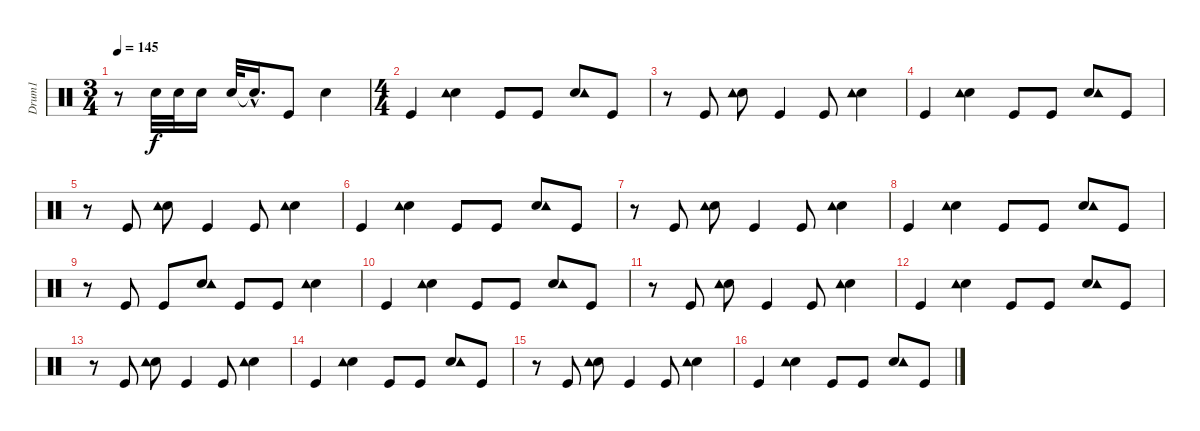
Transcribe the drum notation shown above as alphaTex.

\track ("Drum1" "Drum1") {instrument percussion}
\staff {score}
\articulation defaults
\ts (3 4)
\tempo 145
\clef neutral
\ks c
r.8{dy f} "Snare (hit) 2".32 "Snare (hit) 2".32 "Snare (hit) 2".16 "Snare (hit) 2".32 "Snare (hit) 2"{hac t}.16{d} "Kick (hit)".8 "Snare (hit) 2".4 |
\ts (4 4)
"Kick (hit)".4 ("Snare (hit) 2" "Tambourine (hit)").4 "Kick (hit)".8 "Kick (hit)".8 ("Snare (hit) 2" "Tambourine (hit)").8 "Kick (hit)".8 |
r.8 "Kick (hit)".8 ("Snare (hit) 2" "Tambourine (hit)").8 "Kick (hit)".4 "Kick (hit)".8 ("Snare (hit) 2" "Tambourine (hit)").4 |
"Kick (hit)".4 ("Snare (hit) 2" "Tambourine (hit)").4 "Kick (hit)".8 "Kick (hit)".8 ("Snare (hit) 2" "Tambourine (hit)").8 "Kick (hit)".8 |
r.8 "Kick (hit)".8 ("Snare (hit) 2" "Tambourine (hit)").8 "Kick (hit)".4 "Kick (hit)".8 ("Snare (hit) 2" "Tambourine (hit)").4 |
"Kick (hit)".4 ("Snare (hit) 2" "Tambourine (hit)").4 "Kick (hit)".8 "Kick (hit)".8 ("Snare (hit) 2" "Tambourine (hit)").8 "Kick (hit)".8 |
r.8 "Kick (hit)".8 ("Snare (hit) 2" "Tambourine (hit)").8 "Kick (hit)".4 "Kick (hit)".8 ("Snare (hit) 2" "Tambourine (hit)").4 |
"Kick (hit)".4 ("Snare (hit) 2" "Tambourine (hit)").4 "Kick (hit)".8 "Kick (hit)".8 ("Snare (hit) 2" "Tambourine (hit)").8 "Kick (hit)".8 |
r.8 "Kick (hit)".8 "Kick (hit)".8 ("Snare (hit) 2" "Tambourine (hit)").8 "Kick (hit)".8 "Kick (hit)".8 ("Snare (hit) 2" "Tambourine (hit)").4 |
"Kick (hit)".4 ("Snare (hit) 2" "Tambourine (hit)").4 "Kick (hit)".8 "Kick (hit)".8 ("Snare (hit) 2" "Tambourine (hit)").8 "Kick (hit)".8 |
r.8 "Kick (hit)".8 ("Snare (hit) 2" "Tambourine (hit)").8 "Kick (hit)".4 "Kick (hit)".8 ("Snare (hit) 2" "Tambourine (hit)").4 |
"Kick (hit)".4 ("Snare (hit) 2" "Tambourine (hit)").4 "Kick (hit)".8 "Kick (hit)".8 ("Snare (hit) 2" "Tambourine (hit)").8 "Kick (hit)".8 |
r.8 "Kick (hit)".8 ("Snare (hit) 2" "Tambourine (hit)").8 "Kick (hit)".4 "Kick (hit)".8 ("Snare (hit) 2" "Tambourine (hit)").4 |
"Kick (hit)".4 ("Snare (hit) 2" "Tambourine (hit)").4 "Kick (hit)".8 "Kick (hit)".8 ("Snare (hit) 2" "Tambourine (hit)").8 "Kick (hit)".8 |
r.8 "Kick (hit)".8 ("Snare (hit) 2" "Tambourine (hit)").8 "Kick (hit)".4 "Kick (hit)".8 ("Snare (hit) 2" "Tambourine (hit)").4 |
"Kick (hit)".4 ("Snare (hit) 2" "Tambourine (hit)").4 "Kick (hit)".8 "Kick (hit)".8 ("Snare (hit) 2" "Tambourine (hit)").8 "Kick (hit)".8
